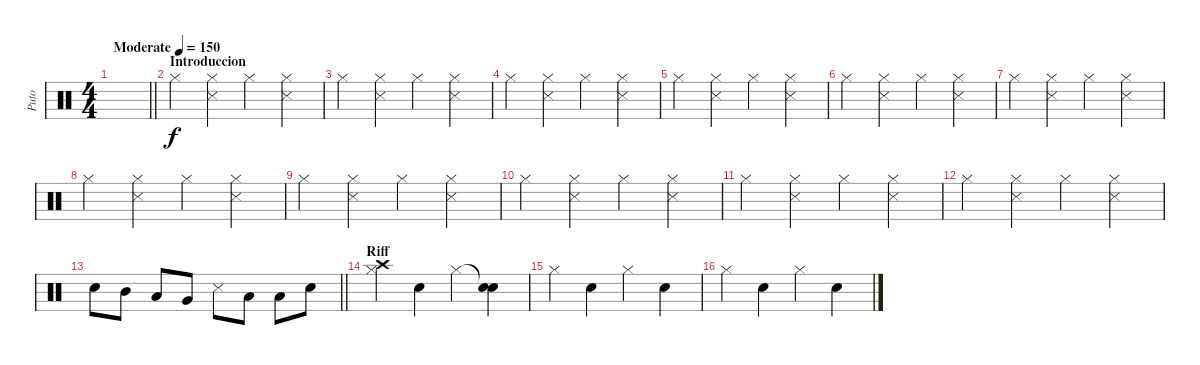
\track ("Puto" "Puto") {instrument percussion}
\staff {score}
\articulation defaults
\ts (4 4)
\tempo (150 "Moderate")
\clef neutral
\barLineRight lightlight
\ks c
|
\section ("" "Introduccion")
"Hi-Hat (closed)".4 ("Snare (side stick) 3" "Hi-Hat (closed)").4 "Hi-Hat (closed)".4 ("Snare (side stick) 3" "Hi-Hat (closed)").4 |
"Hi-Hat (closed)".4 ("Snare (side stick) 3" "Hi-Hat (closed)").4 "Hi-Hat (closed)".4 ("Snare (side stick) 3" "Hi-Hat (closed)").4 |
"Hi-Hat (closed)".4 ("Snare (side stick) 3" "Hi-Hat (closed)").4 "Hi-Hat (closed)".4 ("Snare (side stick) 3" "Hi-Hat (closed)").4 |
"Hi-Hat (closed)".4 ("Snare (side stick) 3" "Hi-Hat (closed)").4 "Hi-Hat (closed)".4 ("Snare (side stick) 3" "Hi-Hat (closed)").4 |
"Hi-Hat (closed)".4 ("Snare (side stick) 3" "Hi-Hat (closed)").4 "Hi-Hat (closed)".4 ("Snare (side stick) 3" "Hi-Hat (closed)").4 |
"Hi-Hat (closed)".4 ("Snare (side stick) 3" "Hi-Hat (closed)").4 "Hi-Hat (closed)".4 ("Snare (side stick) 3" "Hi-Hat (closed)").4 |
"Hi-Hat (closed)".4 ("Snare (side stick) 3" "Hi-Hat (closed)").4 "Hi-Hat (closed)".4 ("Snare (side stick) 3" "Hi-Hat (closed)").4 |
"Hi-Hat (closed)".4 ("Snare (side stick) 3" "Hi-Hat (closed)").4 "Hi-Hat (closed)".4 ("Snare (side stick) 3" "Hi-Hat (closed)").4 |
"Hi-Hat (closed)".4 ("Snare (side stick) 3" "Hi-Hat (closed)").4 "Hi-Hat (closed)".4 ("Snare (side stick) 3" "Hi-Hat (closed)").4 |
"Hi-Hat (closed)".4 ("Snare (side stick) 3" "Hi-Hat (closed)").4 "Hi-Hat (closed)".4 ("Snare (side stick) 3" "Hi-Hat (closed)").4 |
"Hi-Hat (closed)".4 ("Snare (side stick) 3" "Hi-Hat (closed)").4 "Hi-Hat (closed)".4 ("Snare (side stick) 3" "Hi-Hat (closed)").4 |
\barLineRight lightlight "Electric Snare (hit)".8 "Mid Tom (hit)".8 "Low Tom (hit)".8 "Very Low Tom (hit)".8 "Snare (side stick) 3".8 "Low Floor Tom (hit)".8 "Low Floor Tom (hit)".8 "Electric Snare (hit)".8
|
\section ("" "Riff")
("Crash high (hit)" "Hi-Hat (closed)").4 "Electric Snare (hit)".4 "Hi-Hat (closed)".4 ("Snare (hit)"{t} "Electric Snare (hit)").4 |
"Hi-Hat (closed)".4 "Electric Snare (hit)".4 "Hi-Hat (closed)".4 "Electric Snare (hit)".4 |
"Hi-Hat (closed)".4 "Electric Snare (hit)".4 "Hi-Hat (closed)".4 "Electric Snare (hit)".4
